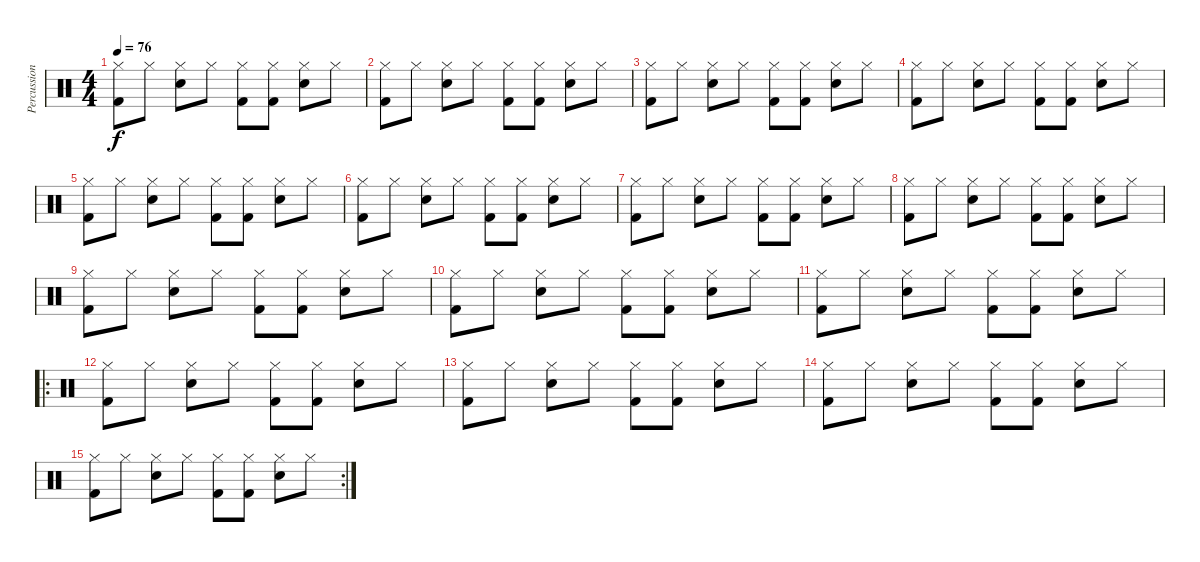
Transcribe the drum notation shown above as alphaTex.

\track ("Percussion" "Percussion") {instrument percussion}
\staff {score}
\articulation defaults
\ts (4 4)
\tempo 76
\clef neutral
\ks c
("Hi-Hat (closed)" "Kick (hit) 2").8{dy f} "Hi-Hat (closed)".8 ("Hi-Hat (closed)" "Snare (hit) 2").8 "Hi-Hat (closed)".8 ("Hi-Hat (closed)" "Kick (hit) 2").8 ("Hi-Hat (closed)" "Kick (hit) 2").8 ("Hi-Hat (closed)" "Snare (hit) 2").8 "Hi-Hat (closed)".8 |
("Hi-Hat (closed)" "Kick (hit) 2").8 "Hi-Hat (closed)".8 ("Hi-Hat (closed)" "Snare (hit) 2").8 "Hi-Hat (closed)".8 ("Hi-Hat (closed)" "Kick (hit) 2").8 ("Hi-Hat (closed)" "Kick (hit) 2").8 ("Hi-Hat (closed)" "Snare (hit) 2").8 "Hi-Hat (closed)".8 |
("Hi-Hat (closed)" "Kick (hit) 2").8 "Hi-Hat (closed)".8 ("Hi-Hat (closed)" "Snare (hit) 2").8 "Hi-Hat (closed)".8 ("Hi-Hat (closed)" "Kick (hit) 2").8 ("Hi-Hat (closed)" "Kick (hit) 2").8 ("Hi-Hat (closed)" "Snare (hit) 2").8 "Hi-Hat (closed)".8 |
("Hi-Hat (closed)" "Kick (hit) 2").8 "Hi-Hat (closed)".8 ("Hi-Hat (closed)" "Snare (hit) 2").8 "Hi-Hat (closed)".8 ("Hi-Hat (closed)" "Kick (hit) 2").8 ("Hi-Hat (closed)" "Kick (hit) 2").8 ("Hi-Hat (closed)" "Snare (hit) 2").8 "Hi-Hat (closed)".8 |
("Hi-Hat (closed)" "Kick (hit) 2").8 "Hi-Hat (closed)".8 ("Hi-Hat (closed)" "Snare (hit) 2").8 "Hi-Hat (closed)".8 ("Hi-Hat (closed)" "Kick (hit) 2").8 ("Hi-Hat (closed)" "Kick (hit) 2").8 ("Hi-Hat (closed)" "Snare (hit) 2").8 "Hi-Hat (closed)".8 |
("Hi-Hat (closed)" "Kick (hit) 2").8 "Hi-Hat (closed)".8 ("Hi-Hat (closed)" "Snare (hit) 2").8 "Hi-Hat (closed)".8 ("Hi-Hat (closed)" "Kick (hit) 2").8 ("Hi-Hat (closed)" "Kick (hit) 2").8 ("Hi-Hat (closed)" "Snare (hit) 2").8 "Hi-Hat (closed)".8 |
("Hi-Hat (closed)" "Kick (hit) 2").8 "Hi-Hat (closed)".8 ("Hi-Hat (closed)" "Snare (hit) 2").8 "Hi-Hat (closed)".8 ("Hi-Hat (closed)" "Kick (hit) 2").8 ("Hi-Hat (closed)" "Kick (hit) 2").8 ("Hi-Hat (closed)" "Snare (hit) 2").8 "Hi-Hat (closed)".8 |
("Hi-Hat (closed)" "Kick (hit) 2").8 "Hi-Hat (closed)".8 ("Hi-Hat (closed)" "Snare (hit) 2").8 "Hi-Hat (closed)".8 ("Hi-Hat (closed)" "Kick (hit) 2").8 ("Hi-Hat (closed)" "Kick (hit) 2").8 ("Hi-Hat (closed)" "Snare (hit) 2").8 "Hi-Hat (closed)".8 |
("Hi-Hat (closed)" "Kick (hit) 2").8 "Hi-Hat (closed)".8 ("Hi-Hat (closed)" "Snare (hit) 2").8 "Hi-Hat (closed)".8 ("Hi-Hat (closed)" "Kick (hit) 2").8 ("Hi-Hat (closed)" "Kick (hit) 2").8 ("Hi-Hat (closed)" "Snare (hit) 2").8 "Hi-Hat (closed)".8 |
("Hi-Hat (closed)" "Kick (hit) 2").8 "Hi-Hat (closed)".8 ("Hi-Hat (closed)" "Snare (hit) 2").8 "Hi-Hat (closed)".8 ("Hi-Hat (closed)" "Kick (hit) 2").8 ("Hi-Hat (closed)" "Kick (hit) 2").8 ("Hi-Hat (closed)" "Snare (hit) 2").8 "Hi-Hat (closed)".8 |
("Hi-Hat (closed)" "Kick (hit) 2").8 "Hi-Hat (closed)".8 ("Hi-Hat (closed)" "Snare (hit) 2").8 "Hi-Hat (closed)".8 ("Hi-Hat (closed)" "Kick (hit) 2").8 ("Hi-Hat (closed)" "Kick (hit) 2").8 ("Hi-Hat (closed)" "Snare (hit) 2").8 "Hi-Hat (closed)".8 |
\ro
("Hi-Hat (closed)" "Kick (hit) 2").8 "Hi-Hat (closed)".8 ("Hi-Hat (closed)" "Snare (hit) 2").8 "Hi-Hat (closed)".8 ("Hi-Hat (closed)" "Kick (hit) 2").8 ("Hi-Hat (closed)" "Kick (hit) 2").8 ("Hi-Hat (closed)" "Snare (hit) 2").8 "Hi-Hat (closed)".8 |
("Hi-Hat (closed)" "Kick (hit) 2").8 "Hi-Hat (closed)".8 ("Hi-Hat (closed)" "Snare (hit) 2").8 "Hi-Hat (closed)".8 ("Hi-Hat (closed)" "Kick (hit) 2").8 ("Hi-Hat (closed)" "Kick (hit) 2").8 ("Hi-Hat (closed)" "Snare (hit) 2").8 "Hi-Hat (closed)".8 |
("Hi-Hat (closed)" "Kick (hit) 2").8 "Hi-Hat (closed)".8 ("Hi-Hat (closed)" "Snare (hit) 2").8 "Hi-Hat (closed)".8 ("Hi-Hat (closed)" "Kick (hit) 2").8 ("Hi-Hat (closed)" "Kick (hit) 2").8 ("Hi-Hat (closed)" "Snare (hit) 2").8 "Hi-Hat (closed)".8 |
\rc 2
("Hi-Hat (closed)" "Kick (hit) 2").8 "Hi-Hat (closed)".8 ("Hi-Hat (closed)" "Snare (hit) 2").8 "Hi-Hat (closed)".8 ("Hi-Hat (closed)" "Kick (hit) 2").8 ("Hi-Hat (closed)" "Kick (hit) 2").8 ("Hi-Hat (closed)" "Snare (hit) 2").8 "Hi-Hat (closed)".8
